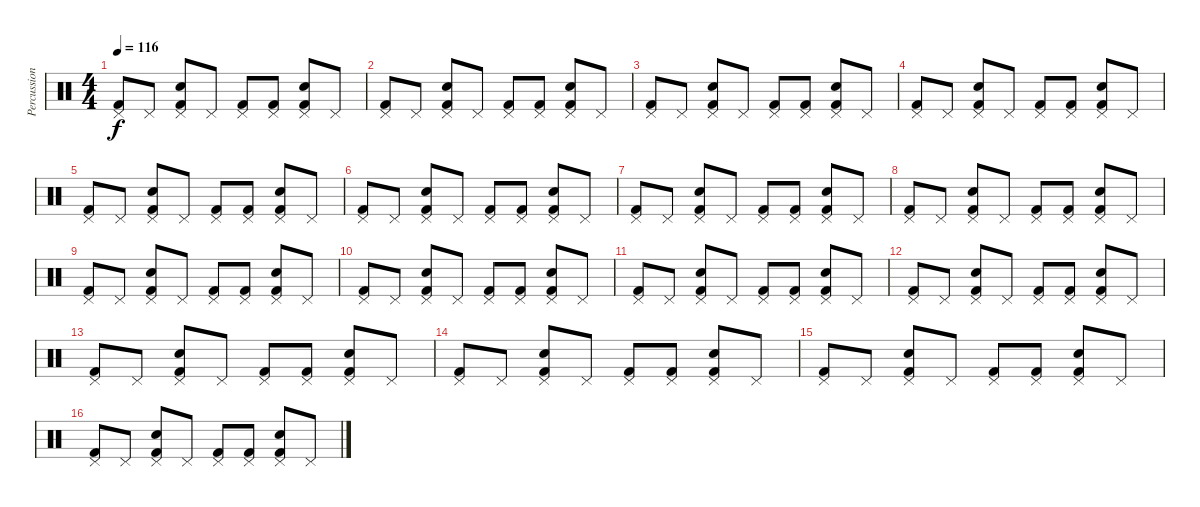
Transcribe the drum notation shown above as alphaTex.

\track ("Percussion" "Percussion") {instrument percussion}
\staff {score}
\articulation defaults
\ts (4 4)
\tempo 116
\clef neutral
\ks c
("Pedal Hi-Hat (hit)" "Kick (hit) 2").8{dy f} "Pedal Hi-Hat (hit)".8 ("Pedal Hi-Hat (hit)" "Snare (hit) 2" "Kick (hit) 2").8 "Pedal Hi-Hat (hit)".8 ("Pedal Hi-Hat (hit)" "Kick (hit) 2").8 ("Pedal Hi-Hat (hit)" "Kick (hit) 2").8 ("Pedal Hi-Hat (hit)" "Snare (hit) 2" "Kick (hit) 2").8 "Pedal Hi-Hat (hit)".8 |
("Pedal Hi-Hat (hit)" "Kick (hit) 2").8 "Pedal Hi-Hat (hit)".8 ("Pedal Hi-Hat (hit)" "Snare (hit) 2" "Kick (hit) 2").8 "Pedal Hi-Hat (hit)".8 ("Pedal Hi-Hat (hit)" "Kick (hit) 2").8 ("Pedal Hi-Hat (hit)" "Kick (hit) 2").8 ("Pedal Hi-Hat (hit)" "Snare (hit) 2" "Kick (hit) 2").8 "Pedal Hi-Hat (hit)".8 |
("Pedal Hi-Hat (hit)" "Kick (hit) 2").8 "Pedal Hi-Hat (hit)".8 ("Pedal Hi-Hat (hit)" "Snare (hit) 2" "Kick (hit) 2").8 "Pedal Hi-Hat (hit)".8 ("Pedal Hi-Hat (hit)" "Kick (hit) 2").8 ("Pedal Hi-Hat (hit)" "Kick (hit) 2").8 ("Pedal Hi-Hat (hit)" "Snare (hit) 2" "Kick (hit) 2").8 "Pedal Hi-Hat (hit)".8 |
("Pedal Hi-Hat (hit)" "Kick (hit) 2").8 "Pedal Hi-Hat (hit)".8 ("Pedal Hi-Hat (hit)" "Snare (hit) 2" "Kick (hit) 2").8 "Pedal Hi-Hat (hit)".8 ("Pedal Hi-Hat (hit)" "Kick (hit) 2").8 ("Pedal Hi-Hat (hit)" "Kick (hit) 2").8 ("Pedal Hi-Hat (hit)" "Snare (hit) 2" "Kick (hit) 2").8 "Pedal Hi-Hat (hit)".8 |
("Pedal Hi-Hat (hit)" "Kick (hit) 2").8 "Pedal Hi-Hat (hit)".8 ("Pedal Hi-Hat (hit)" "Snare (hit) 2" "Kick (hit) 2").8 "Pedal Hi-Hat (hit)".8 ("Pedal Hi-Hat (hit)" "Kick (hit) 2").8 ("Pedal Hi-Hat (hit)" "Kick (hit) 2").8 ("Pedal Hi-Hat (hit)" "Snare (hit) 2" "Kick (hit) 2").8 "Pedal Hi-Hat (hit)".8 |
("Pedal Hi-Hat (hit)" "Kick (hit) 2").8 "Pedal Hi-Hat (hit)".8 ("Pedal Hi-Hat (hit)" "Snare (hit) 2" "Kick (hit) 2").8 "Pedal Hi-Hat (hit)".8 ("Pedal Hi-Hat (hit)" "Kick (hit) 2").8 ("Pedal Hi-Hat (hit)" "Kick (hit) 2").8 ("Pedal Hi-Hat (hit)" "Snare (hit) 2" "Kick (hit) 2").8 "Pedal Hi-Hat (hit)".8 |
("Pedal Hi-Hat (hit)" "Kick (hit) 2").8 "Pedal Hi-Hat (hit)".8 ("Pedal Hi-Hat (hit)" "Snare (hit) 2" "Kick (hit) 2").8 "Pedal Hi-Hat (hit)".8 ("Pedal Hi-Hat (hit)" "Kick (hit) 2").8 ("Pedal Hi-Hat (hit)" "Kick (hit) 2").8 ("Pedal Hi-Hat (hit)" "Snare (hit) 2" "Kick (hit) 2").8 "Pedal Hi-Hat (hit)".8 |
("Pedal Hi-Hat (hit)" "Kick (hit) 2").8 "Pedal Hi-Hat (hit)".8 ("Pedal Hi-Hat (hit)" "Snare (hit) 2" "Kick (hit) 2").8 "Pedal Hi-Hat (hit)".8 ("Pedal Hi-Hat (hit)" "Kick (hit) 2").8 ("Pedal Hi-Hat (hit)" "Kick (hit) 2").8 ("Pedal Hi-Hat (hit)" "Snare (hit) 2" "Kick (hit) 2").8 "Pedal Hi-Hat (hit)".8 |
("Pedal Hi-Hat (hit)" "Kick (hit) 2").8 "Pedal Hi-Hat (hit)".8 ("Pedal Hi-Hat (hit)" "Snare (hit) 2" "Kick (hit) 2").8 "Pedal Hi-Hat (hit)".8 ("Pedal Hi-Hat (hit)" "Kick (hit) 2").8 ("Pedal Hi-Hat (hit)" "Kick (hit) 2").8 ("Pedal Hi-Hat (hit)" "Snare (hit) 2" "Kick (hit) 2").8 "Pedal Hi-Hat (hit)".8 |
("Pedal Hi-Hat (hit)" "Kick (hit) 2").8 "Pedal Hi-Hat (hit)".8 ("Pedal Hi-Hat (hit)" "Snare (hit) 2" "Kick (hit) 2").8 "Pedal Hi-Hat (hit)".8 ("Pedal Hi-Hat (hit)" "Kick (hit) 2").8 ("Pedal Hi-Hat (hit)" "Kick (hit) 2").8 ("Pedal Hi-Hat (hit)" "Snare (hit) 2" "Kick (hit) 2").8 "Pedal Hi-Hat (hit)".8 |
("Pedal Hi-Hat (hit)" "Kick (hit) 2").8 "Pedal Hi-Hat (hit)".8 ("Pedal Hi-Hat (hit)" "Snare (hit) 2" "Kick (hit) 2").8 "Pedal Hi-Hat (hit)".8 ("Pedal Hi-Hat (hit)" "Kick (hit) 2").8 ("Pedal Hi-Hat (hit)" "Kick (hit) 2").8 ("Pedal Hi-Hat (hit)" "Snare (hit) 2" "Kick (hit) 2").8 "Pedal Hi-Hat (hit)".8 |
("Pedal Hi-Hat (hit)" "Kick (hit) 2").8 "Pedal Hi-Hat (hit)".8 ("Pedal Hi-Hat (hit)" "Snare (hit) 2" "Kick (hit) 2").8 "Pedal Hi-Hat (hit)".8 ("Pedal Hi-Hat (hit)" "Kick (hit) 2").8 ("Pedal Hi-Hat (hit)" "Kick (hit) 2").8 ("Pedal Hi-Hat (hit)" "Snare (hit) 2" "Kick (hit) 2").8 "Pedal Hi-Hat (hit)".8 |
("Pedal Hi-Hat (hit)" "Kick (hit) 2").8 "Pedal Hi-Hat (hit)".8 ("Pedal Hi-Hat (hit)" "Snare (hit) 2" "Kick (hit) 2").8 "Pedal Hi-Hat (hit)".8 ("Pedal Hi-Hat (hit)" "Kick (hit) 2").8 ("Pedal Hi-Hat (hit)" "Kick (hit) 2").8 ("Pedal Hi-Hat (hit)" "Snare (hit) 2" "Kick (hit) 2").8 "Pedal Hi-Hat (hit)".8 |
("Pedal Hi-Hat (hit)" "Kick (hit) 2").8 "Pedal Hi-Hat (hit)".8 ("Pedal Hi-Hat (hit)" "Snare (hit) 2" "Kick (hit) 2").8 "Pedal Hi-Hat (hit)".8 ("Pedal Hi-Hat (hit)" "Kick (hit) 2").8 ("Pedal Hi-Hat (hit)" "Kick (hit) 2").8 ("Pedal Hi-Hat (hit)" "Snare (hit) 2" "Kick (hit) 2").8 "Pedal Hi-Hat (hit)".8 |
("Pedal Hi-Hat (hit)" "Kick (hit) 2").8 "Pedal Hi-Hat (hit)".8 ("Pedal Hi-Hat (hit)" "Snare (hit) 2" "Kick (hit) 2").8 "Pedal Hi-Hat (hit)".8 ("Pedal Hi-Hat (hit)" "Kick (hit) 2").8 ("Pedal Hi-Hat (hit)" "Kick (hit) 2").8 ("Pedal Hi-Hat (hit)" "Snare (hit) 2" "Kick (hit) 2").8 "Pedal Hi-Hat (hit)".8 |
("Pedal Hi-Hat (hit)" "Kick (hit) 2").8 "Pedal Hi-Hat (hit)".8 ("Pedal Hi-Hat (hit)" "Snare (hit) 2" "Kick (hit) 2").8 "Pedal Hi-Hat (hit)".8 ("Pedal Hi-Hat (hit)" "Kick (hit) 2").8 ("Pedal Hi-Hat (hit)" "Kick (hit) 2").8 ("Pedal Hi-Hat (hit)" "Snare (hit) 2" "Kick (hit) 2").8 "Pedal Hi-Hat (hit)".8
